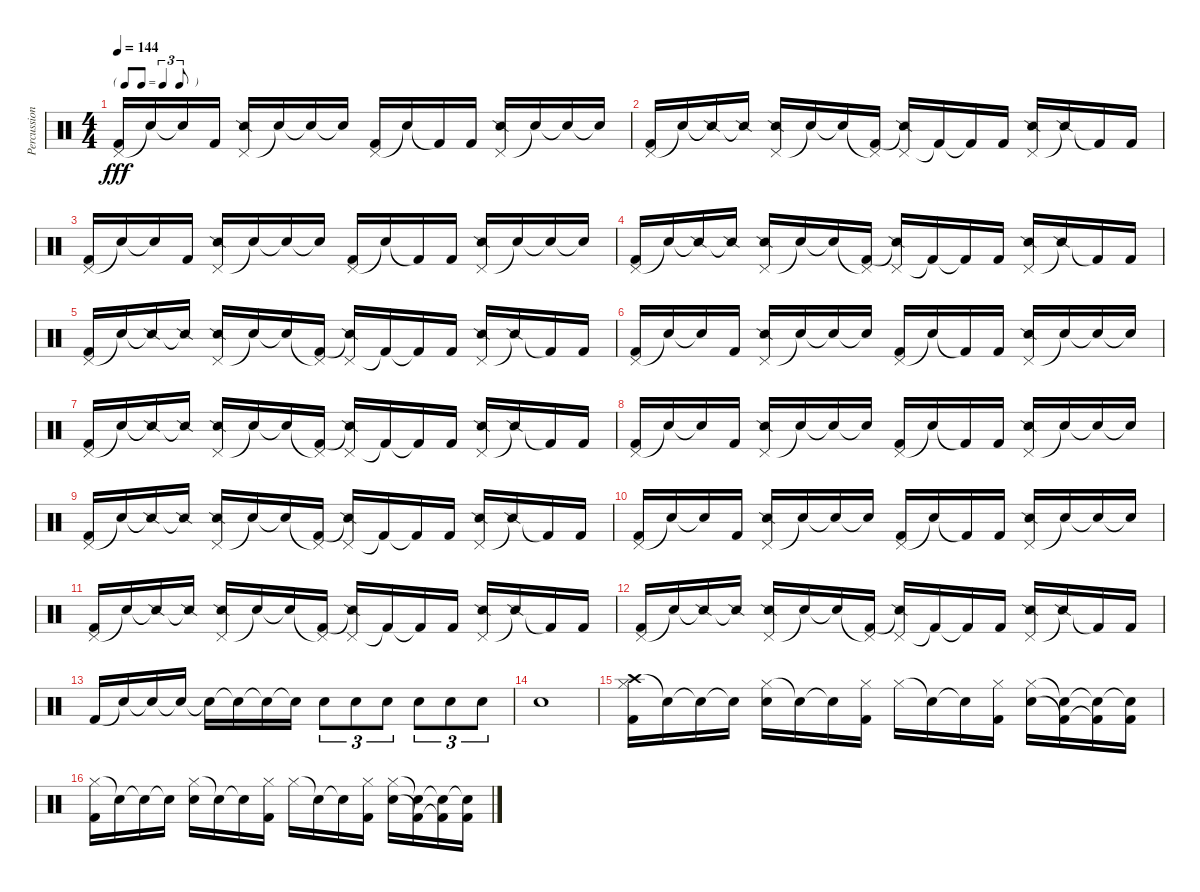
\track ("Percussion" "Percussion") {instrument percussion}
\staff {score}
\articulation defaults
\ts (4 4)
\tf triplet8th
\tempo 144
\clef neutral
\ks c
("Pedal Hi-Hat (hit)" "Kick (hit) 2").16{dy fff} "Snare (hit)"{t}.16 "Snare (hit)"{t}.16 "Kick (hit) 2".16 ("Pedal Hi-Hat (hit)" "Snare (side stick) 2").16 "Snare (hit)"{t}.16 "Snare (hit)"{t}.16 "Snare (hit)"{t}.16 ("Pedal Hi-Hat (hit)" "Kick (hit) 2").16 "Snare (hit)"{t}.16 "Kick (hit) 2"{t}.16 "Kick (hit) 2".16 ("Pedal Hi-Hat (hit)" "Snare (side stick) 2").16 "Snare (hit)"{t}.16 "Snare (hit)"{t}.16 "Snare (hit)"{t}.16 |
("Pedal Hi-Hat (hit)" "Kick (hit) 2").16 "Snare (hit)"{t}.16 "Snare (side stick) 2"{t}.16 "Snare (side stick) 2"{t}.16 ("Pedal Hi-Hat (hit)" "Snare (side stick) 2").16 "Snare (hit)"{t}.16 "Snare (hit)"{t}.16 ("Pedal Hi-Hat (hit)"{t} "Kick (hit) 2").16 ("Pedal Hi-Hat (hit)" "Snare (side stick) 2"{t}).16 "Kick (hit) 2"{t}.16 "Kick (hit) 2"{t}.16 "Kick (hit) 2".16 ("Pedal Hi-Hat (hit)" "Snare (side stick) 2").16 "Snare (side stick) 2"{t}.16 "Kick (hit) 2"{t}.16 "Kick (hit) 2".16 |
("Pedal Hi-Hat (hit)" "Kick (hit) 2").16 "Snare (hit)"{t}.16 "Snare (hit)"{t}.16 "Kick (hit) 2".16 ("Pedal Hi-Hat (hit)" "Snare (side stick) 2").16 "Snare (hit)"{t}.16 "Snare (hit)"{t}.16 "Snare (hit)"{t}.16 ("Pedal Hi-Hat (hit)" "Kick (hit) 2").16 "Snare (hit)"{t}.16 "Kick (hit) 2"{t}.16 "Kick (hit) 2".16 ("Pedal Hi-Hat (hit)" "Snare (side stick) 2").16 "Snare (hit)"{t}.16 "Snare (hit)"{t}.16 "Snare (hit)"{t}.16 |
("Pedal Hi-Hat (hit)" "Kick (hit) 2").16 "Snare (hit)"{t}.16 "Snare (side stick) 2"{t}.16 "Snare (side stick) 2"{t}.16 ("Pedal Hi-Hat (hit)" "Snare (side stick) 2").16 "Snare (hit)"{t}.16 "Snare (hit)"{t}.16 ("Pedal Hi-Hat (hit)"{t} "Kick (hit) 2").16 ("Pedal Hi-Hat (hit)" "Snare (side stick) 2"{t}).16 "Kick (hit) 2"{t}.16 "Kick (hit) 2"{t}.16 "Kick (hit) 2".16 ("Pedal Hi-Hat (hit)" "Snare (side stick) 2").16 "Snare (side stick) 2"{t}.16 "Kick (hit) 2"{t}.16 "Kick (hit) 2".16 |
("Pedal Hi-Hat (hit)" "Kick (hit) 2").16 "Snare (hit)"{t}.16 "Snare (side stick) 2"{t}.16 "Snare (side stick) 2"{t}.16 ("Pedal Hi-Hat (hit)" "Snare (side stick) 2").16 "Snare (hit)"{t}.16 "Snare (hit)"{t}.16 ("Pedal Hi-Hat (hit)"{t} "Kick (hit) 2").16 ("Pedal Hi-Hat (hit)" "Snare (side stick) 2"{t}).16 "Kick (hit) 2"{t}.16 "Kick (hit) 2"{t}.16 "Kick (hit) 2".16 ("Pedal Hi-Hat (hit)" "Snare (side stick) 2").16 "Snare (side stick) 2"{t}.16 "Kick (hit) 2"{t}.16 "Kick (hit) 2".16 |
("Pedal Hi-Hat (hit)" "Kick (hit) 2").16 "Snare (hit)"{t}.16 "Snare (hit)"{t}.16 "Kick (hit) 2".16 ("Pedal Hi-Hat (hit)" "Snare (side stick) 2").16 "Snare (hit)"{t}.16 "Snare (hit)"{t}.16 "Snare (hit)"{t}.16 ("Pedal Hi-Hat (hit)" "Kick (hit) 2").16 "Snare (hit)"{t}.16 "Kick (hit) 2"{t}.16 "Kick (hit) 2".16 ("Pedal Hi-Hat (hit)" "Snare (side stick) 2").16 "Snare (hit)"{t}.16 "Snare (hit)"{t}.16 "Snare (hit)"{t}.16 |
("Pedal Hi-Hat (hit)" "Kick (hit) 2").16 "Snare (hit)"{t}.16 "Snare (side stick) 2"{t}.16 "Snare (side stick) 2"{t}.16 ("Pedal Hi-Hat (hit)" "Snare (side stick) 2").16 "Snare (hit)"{t}.16 "Snare (hit)"{t}.16 ("Pedal Hi-Hat (hit)"{t} "Kick (hit) 2").16 ("Pedal Hi-Hat (hit)" "Snare (side stick) 2"{t}).16 "Kick (hit) 2"{t}.16 "Kick (hit) 2"{t}.16 "Kick (hit) 2".16 ("Pedal Hi-Hat (hit)" "Snare (side stick) 2").16 "Snare (side stick) 2"{t}.16 "Kick (hit) 2"{t}.16 "Kick (hit) 2".16 |
("Pedal Hi-Hat (hit)" "Kick (hit) 2").16 "Snare (hit)"{t}.16 "Snare (hit)"{t}.16 "Kick (hit) 2".16 ("Pedal Hi-Hat (hit)" "Snare (side stick) 2").16 "Snare (hit)"{t}.16 "Snare (hit)"{t}.16 "Snare (hit)"{t}.16 ("Pedal Hi-Hat (hit)" "Kick (hit) 2").16 "Snare (hit)"{t}.16 "Kick (hit) 2"{t}.16 "Kick (hit) 2".16 ("Pedal Hi-Hat (hit)" "Snare (side stick) 2").16 "Snare (hit)"{t}.16 "Snare (hit)"{t}.16 "Snare (hit)"{t}.16 |
("Pedal Hi-Hat (hit)" "Kick (hit) 2").16 "Snare (hit)"{t}.16 "Snare (side stick) 2"{t}.16 "Snare (side stick) 2"{t}.16 ("Pedal Hi-Hat (hit)" "Snare (side stick) 2").16 "Snare (hit)"{t}.16 "Snare (hit)"{t}.16 ("Pedal Hi-Hat (hit)"{t} "Kick (hit) 2").16 ("Pedal Hi-Hat (hit)" "Snare (side stick) 2"{t}).16 "Kick (hit) 2"{t}.16 "Kick (hit) 2"{t}.16 "Kick (hit) 2".16 ("Pedal Hi-Hat (hit)" "Snare (side stick) 2").16 "Snare (side stick) 2"{t}.16 "Kick (hit) 2"{t}.16 "Kick (hit) 2".16 |
("Pedal Hi-Hat (hit)" "Kick (hit) 2").16 "Snare (hit)"{t}.16 "Snare (hit)"{t}.16 "Kick (hit) 2".16 ("Pedal Hi-Hat (hit)" "Snare (side stick) 2").16 "Snare (hit)"{t}.16 "Snare (hit)"{t}.16 "Snare (hit)"{t}.16 ("Pedal Hi-Hat (hit)" "Kick (hit) 2").16 "Snare (hit)"{t}.16 "Kick (hit) 2"{t}.16 "Kick (hit) 2".16 ("Pedal Hi-Hat (hit)" "Snare (side stick) 2").16 "Snare (hit)"{t}.16 "Snare (hit)"{t}.16 "Snare (hit)"{t}.16 |
("Pedal Hi-Hat (hit)" "Kick (hit) 2").16 "Snare (hit)"{t}.16 "Snare (side stick) 2"{t}.16 "Snare (side stick) 2"{t}.16 ("Pedal Hi-Hat (hit)" "Snare (side stick) 2").16 "Snare (hit)"{t}.16 "Snare (hit)"{t}.16 ("Pedal Hi-Hat (hit)"{t} "Kick (hit) 2").16 ("Pedal Hi-Hat (hit)" "Snare (side stick) 2"{t}).16 "Kick (hit) 2"{t}.16 "Kick (hit) 2"{t}.16 "Kick (hit) 2".16 ("Pedal Hi-Hat (hit)" "Snare (side stick) 2").16 "Snare (side stick) 2"{t}.16 "Kick (hit) 2"{t}.16 "Kick (hit) 2".16 |
("Pedal Hi-Hat (hit)" "Kick (hit) 2").16 "Snare (hit)"{t}.16 "Snare (side stick) 2"{t}.16 "Snare (side stick) 2"{t}.16 ("Pedal Hi-Hat (hit)" "Snare (side stick) 2").16 "Snare (hit)"{t}.16 "Snare (hit)"{t}.16 ("Pedal Hi-Hat (hit)"{t} "Kick (hit) 2").16 ("Pedal Hi-Hat (hit)" "Snare (side stick) 2"{t}).16 "Kick (hit) 2"{t}.16 "Kick (hit) 2"{t}.16 "Kick (hit) 2".16 ("Pedal Hi-Hat (hit)" "Snare (side stick) 2").16 "Snare (side stick) 2"{t}.16 "Kick (hit) 2"{t}.16 "Kick (hit) 2".16 |
"Kick (hit) 2".16 "Snare (hit)"{t}.16 "Snare (hit)"{t}.16 "Snare (hit)"{t}.16 "Snare (hit)"{t}.16 "Snare (hit)"{t}.16 "Snare (hit)"{t}.16 "Snare (hit)"{t}.16 "Electric Snare (hit)".8{tu (3 2)} "Electric Snare (hit)".8{tu (3 2)} "Electric Snare (hit)".8{tu (3 2)} "Electric Snare (hit)".8{tu (3 2)} "Electric Snare (hit)".8{tu (3 2)} "Electric Snare (hit)".8{tu (3 2)} |
"Electric Snare (hit)".1 |
("Crash high (hit)" "Hi-Hat (closed)" "Kick (hit) 2").16 "Snare (hit)"{t}.16 "Snare (hit)"{t}.16 "Snare (hit)"{t}.16 ("Hi-Hat (closed)" "Electric Snare (hit)").16 "Snare (hit)"{t}.16 "Snare (hit)"{t}.16 ("Hi-Hat (closed)" "Kick (hit) 2").16 "Hi-Hat (closed)".16 "Snare (hit)"{t}.16 "Snare (hit)"{t}.16 ("Hi-Hat (closed)" "Kick (hit) 2").16 ("Hi-Hat (closed)" "Electric Snare (hit)").16 ("Snare (hit)"{t} "Kick (hit) 2"{t}).16 ("Snare (hit)"{t} "Kick (hit) 2"{t}).16 ("Snare (hit)"{t} "Kick (hit) 2").16 |
("Hi-Hat (closed)" "Kick (hit) 2").16 "Snare (hit)"{t}.16 "Snare (hit)"{t}.16 "Snare (hit)"{t}.16 ("Hi-Hat (closed)" "Electric Snare (hit)").16 "Snare (hit)"{t}.16 "Snare (hit)"{t}.16 ("Hi-Hat (closed)" "Kick (hit) 2").16 "Hi-Hat (closed)".16 "Snare (hit)"{t}.16 "Snare (hit)"{t}.16 ("Hi-Hat (closed)" "Kick (hit) 2").16 ("Hi-Hat (closed)" "Electric Snare (hit)").16 ("Snare (hit)"{t} "Kick (hit) 2"{t}).16 ("Snare (hit)"{t} "Kick (hit) 2"{t}).16 ("Snare (hit)"{t} "Kick (hit) 2").16
